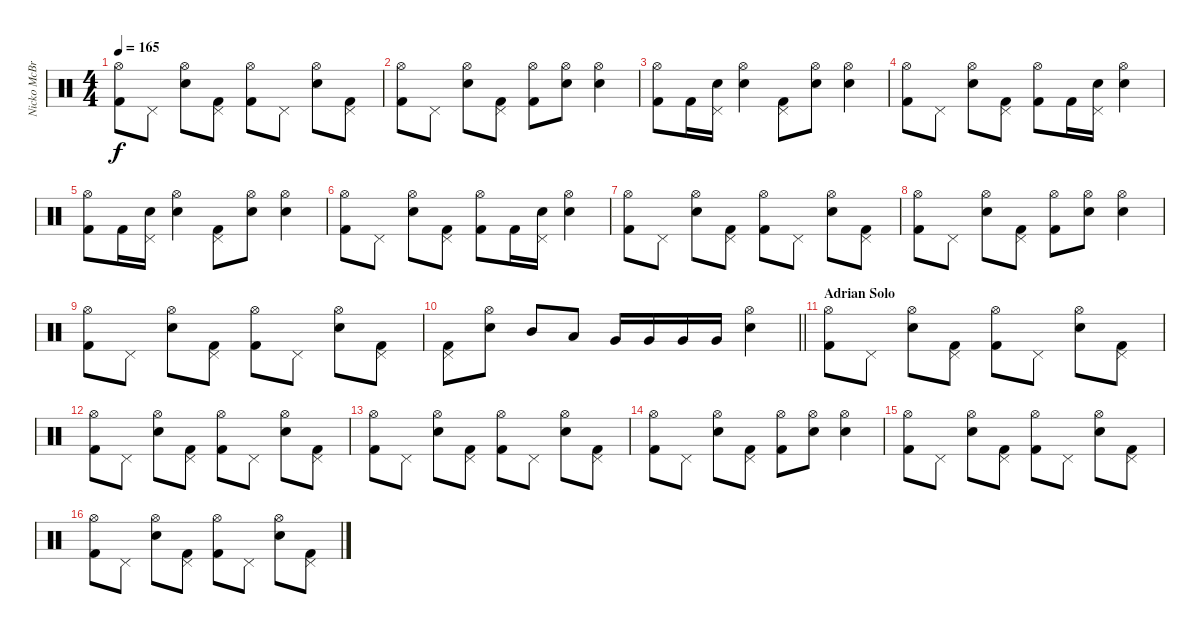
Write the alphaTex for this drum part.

\track ("Nicko McBrain" "Nicko McBr") {instrument percussion}
\staff {score}
\articulation defaults
\ts (4 4)
\tempo 165
\clef neutral
\ks c
("Kick (hit) 2" "Hi-Hat (open)").8{dy f} "Pedal Hi-Hat (hit)".8 ("Snare (hit) 2" "Hi-Hat (open)").8 ("Kick (hit) 2" "Pedal Hi-Hat (hit)").8 ("Kick (hit) 2" "Hi-Hat (open)").8 "Pedal Hi-Hat (hit)".8 ("Snare (hit) 2" "Hi-Hat (open)").8 ("Kick (hit) 2" "Pedal Hi-Hat (hit)").8 |
("Kick (hit) 2" "Hi-Hat (open)").8 "Pedal Hi-Hat (hit)".8 ("Snare (hit) 2" "Hi-Hat (open)").8 ("Kick (hit) 2" "Pedal Hi-Hat (hit)").8 ("Kick (hit) 2" "Hi-Hat (open)").8 ("Snare (hit) 2" "Hi-Hat (open)").8 ("Snare (hit) 2" "Hi-Hat (open)").4 |
("Kick (hit) 2" "Hi-Hat (open)").8 "Kick (hit) 2".16 ("Snare (hit) 2" "Pedal Hi-Hat (hit)").16 ("Snare (hit) 2" "Hi-Hat (open)").4 ("Kick (hit) 2" "Pedal Hi-Hat (hit)").8 ("Snare (hit) 2" "Hi-Hat (open)").8 ("Snare (hit) 2" "Hi-Hat (open)").4 |
("Kick (hit) 2" "Hi-Hat (open)").8 "Pedal Hi-Hat (hit)".8 ("Snare (hit) 2" "Hi-Hat (open)").8 ("Kick (hit) 2" "Pedal Hi-Hat (hit)").8 ("Kick (hit) 2" "Hi-Hat (open)").8 "Kick (hit) 2".16 ("Snare (hit) 2" "Pedal Hi-Hat (hit)").16 ("Snare (hit) 2" "Hi-Hat (open)").4 |
("Kick (hit) 2" "Hi-Hat (open)").8 "Kick (hit) 2".16 ("Snare (hit) 2" "Pedal Hi-Hat (hit)").16 ("Snare (hit) 2" "Hi-Hat (open)").4 ("Kick (hit) 2" "Pedal Hi-Hat (hit)").8 ("Snare (hit) 2" "Hi-Hat (open)").8 ("Snare (hit) 2" "Hi-Hat (open)").4 |
("Kick (hit) 2" "Hi-Hat (open)").8 "Pedal Hi-Hat (hit)".8 ("Snare (hit) 2" "Hi-Hat (open)").8 ("Kick (hit) 2" "Pedal Hi-Hat (hit)").8 ("Kick (hit) 2" "Hi-Hat (open)").8 "Kick (hit) 2".16 ("Snare (hit) 2" "Pedal Hi-Hat (hit)").16 ("Snare (hit) 2" "Hi-Hat (open)").4 |
("Kick (hit) 2" "Hi-Hat (open)").8 "Pedal Hi-Hat (hit)".8 ("Snare (hit) 2" "Hi-Hat (open)").8 ("Kick (hit) 2" "Pedal Hi-Hat (hit)").8 ("Kick (hit) 2" "Hi-Hat (open)").8 "Pedal Hi-Hat (hit)".8 ("Snare (hit) 2" "Hi-Hat (open)").8 ("Kick (hit) 2" "Pedal Hi-Hat (hit)").8 |
("Kick (hit) 2" "Hi-Hat (open)").8 "Pedal Hi-Hat (hit)".8 ("Snare (hit) 2" "Hi-Hat (open)").8 ("Kick (hit) 2" "Pedal Hi-Hat (hit)").8 ("Kick (hit) 2" "Hi-Hat (open)").8 ("Snare (hit) 2" "Hi-Hat (open)").8 ("Snare (hit) 2" "Hi-Hat (open)").4 |
("Kick (hit) 2" "Hi-Hat (open)").8 "Pedal Hi-Hat (hit)".8 ("Snare (hit) 2" "Hi-Hat (open)").8 ("Kick (hit) 2" "Pedal Hi-Hat (hit)").8 ("Kick (hit) 2" "Hi-Hat (open)").8 "Pedal Hi-Hat (hit)".8 ("Snare (hit) 2" "Hi-Hat (open)").8 ("Kick (hit) 2" "Pedal Hi-Hat (hit)").8 |
\barLineRight lightlight
("Kick (hit) 2" "Pedal Hi-Hat (hit)").8 ("Snare (hit) 2" "Hi-Hat (open)").8 "Mid Tom (hit)".8 "Low Tom (hit)".8 "Very Low Tom (hit)".16 "Very Low Tom (hit)".16 "Very Low Tom (hit)".16 "Very Low Tom (hit)".16 ("Snare (hit) 2" "Hi-Hat (open)").4 |
\section ("" "Adrian Solo")
("Kick (hit) 2" "Hi-Hat (open)").8 "Pedal Hi-Hat (hit)".8 ("Snare (hit) 2" "Hi-Hat (open)").8 ("Kick (hit) 2" "Pedal Hi-Hat (hit)").8 ("Kick (hit) 2" "Hi-Hat (open)").8 "Pedal Hi-Hat (hit)".8 ("Snare (hit) 2" "Hi-Hat (open)").8 ("Kick (hit) 2" "Pedal Hi-Hat (hit)").8 |
("Kick (hit) 2" "Hi-Hat (open)").8 "Pedal Hi-Hat (hit)".8 ("Snare (hit) 2" "Hi-Hat (open)").8 ("Kick (hit) 2" "Pedal Hi-Hat (hit)").8 ("Kick (hit) 2" "Hi-Hat (open)").8 "Pedal Hi-Hat (hit)".8 ("Snare (hit) 2" "Hi-Hat (open)").8 ("Kick (hit) 2" "Pedal Hi-Hat (hit)").8 |
("Kick (hit) 2" "Hi-Hat (open)").8 "Pedal Hi-Hat (hit)".8 ("Snare (hit) 2" "Hi-Hat (open)").8 ("Kick (hit) 2" "Pedal Hi-Hat (hit)").8 ("Kick (hit) 2" "Hi-Hat (open)").8 "Pedal Hi-Hat (hit)".8 ("Snare (hit) 2" "Hi-Hat (open)").8 ("Kick (hit) 2" "Pedal Hi-Hat (hit)").8 |
("Kick (hit) 2" "Hi-Hat (open)").8 "Pedal Hi-Hat (hit)".8 ("Snare (hit) 2" "Hi-Hat (open)").8 ("Kick (hit) 2" "Pedal Hi-Hat (hit)").8 ("Kick (hit) 2" "Hi-Hat (open)").8 ("Snare (hit) 2" "Hi-Hat (open)").8 ("Snare (hit) 2" "Hi-Hat (open)").4 |
("Kick (hit) 2" "Hi-Hat (open)").8 "Pedal Hi-Hat (hit)".8 ("Snare (hit) 2" "Hi-Hat (open)").8 ("Kick (hit) 2" "Pedal Hi-Hat (hit)").8 ("Kick (hit) 2" "Hi-Hat (open)").8 "Pedal Hi-Hat (hit)".8 ("Snare (hit) 2" "Hi-Hat (open)").8 ("Kick (hit) 2" "Pedal Hi-Hat (hit)").8 |
("Kick (hit) 2" "Hi-Hat (open)").8 "Pedal Hi-Hat (hit)".8 ("Snare (hit) 2" "Hi-Hat (open)").8 ("Kick (hit) 2" "Pedal Hi-Hat (hit)").8 ("Kick (hit) 2" "Hi-Hat (open)").8 "Pedal Hi-Hat (hit)".8 ("Snare (hit) 2" "Hi-Hat (open)").8 ("Kick (hit) 2" "Pedal Hi-Hat (hit)").8
